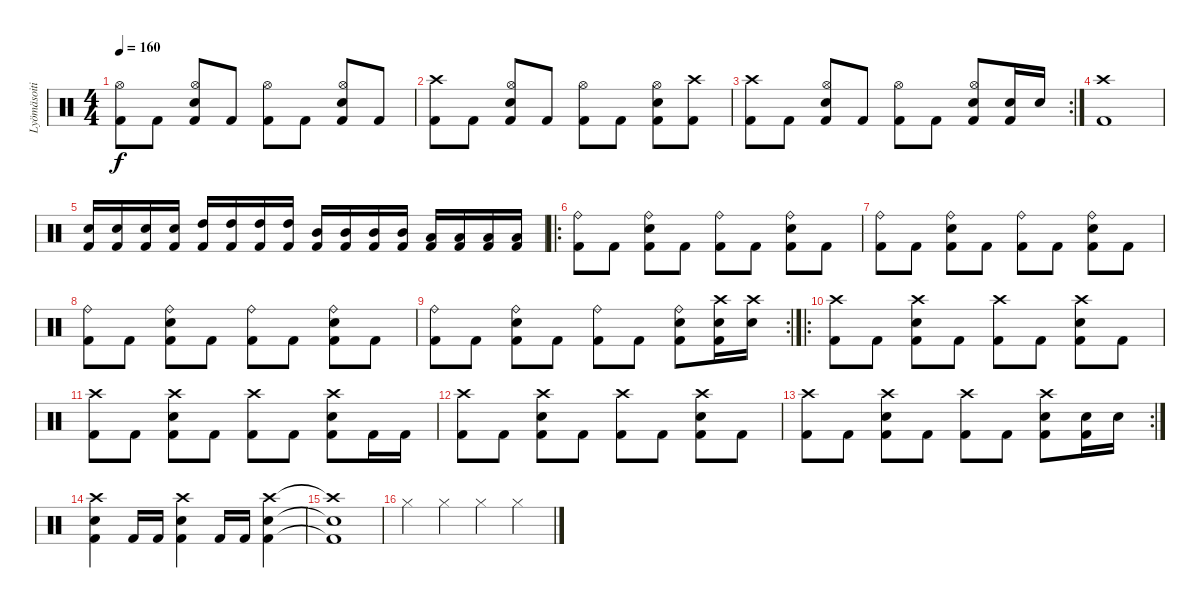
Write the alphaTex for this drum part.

\track ("Lyömäsoitin" "Lyömäsoiti") {instrument percussion}
\staff {score}
\articulation defaults
\ts (4 4)
\tempo 160
\clef neutral
\ks c
("Kick (hit) 2" "Hi-Hat (open)").8{dy f} "Kick (hit) 2".8 ("Kick (hit) 2" "Hi-Hat (open)" "Electric Snare (hit)").8 "Kick (hit) 2".8 ("Kick (hit) 2" "Hi-Hat (open)").8 "Kick (hit) 2".8 ("Kick (hit) 2" "Hi-Hat (open)" "Electric Snare (hit)").8 "Kick (hit) 2".8 |
("Kick (hit) 2" "Crash high (hit)").8 "Kick (hit) 2".8 ("Kick (hit) 2" "Hi-Hat (open)" "Electric Snare (hit)").8 "Kick (hit) 2".8 ("Kick (hit) 2" "Hi-Hat (open)").8 "Kick (hit) 2".8 ("Kick (hit) 2" "Hi-Hat (open)" "Electric Snare (hit)").8 ("Kick (hit) 2" "Crash high (hit)").8 |
\rc 2
("Kick (hit) 2" "Crash high (hit)").8 "Kick (hit) 2".8 ("Kick (hit) 2" "Hi-Hat (open)" "Electric Snare (hit)").8 "Kick (hit) 2".8 ("Kick (hit) 2" "Hi-Hat (open)").8 "Kick (hit) 2".8 ("Kick (hit) 2" "Hi-Hat (open)" "Electric Snare (hit)").8 ("Kick (hit) 2" "Electric Snare (hit)").16 "Electric Snare (hit)".16 |
("Kick (hit) 2" "Crash high (hit)").1 |
("Electric Snare (hit)" "Kick (hit) 2").16 ("Electric Snare (hit)" "Kick (hit) 2").16 ("Electric Snare (hit)" "Kick (hit) 2").16 ("Electric Snare (hit)" "Kick (hit) 2").16 ("High Tom (hit)" "Kick (hit) 2").16 ("High Tom (hit)" "Kick (hit) 2").16 ("High Tom (hit)" "Kick (hit) 2").16 ("High Tom (hit)" "Kick (hit) 2").16 ("Mid Tom (hit)" "Kick (hit) 2").16 ("Mid Tom (hit)" "Kick (hit) 2").16 ("Mid Tom (hit)" "Kick (hit) 2").16 ("Mid Tom (hit)" "Kick (hit) 2").16 ("Low Floor Tom (hit)" "Kick (hit) 2").16 ("Low Floor Tom (hit)" "Kick (hit) 2").16 ("Low Floor Tom (hit)" "Kick (hit) 2").16 ("Low Floor Tom (hit)" "Kick (hit) 2").16 |
\ro
("Kick (hit) 2" "Ride (bell)").8 "Kick (hit) 2".8 ("Kick (hit) 2" "Ride (bell)" "Electric Snare (hit)").8 "Kick (hit) 2".8 ("Kick (hit) 2" "Ride (bell)").8 "Kick (hit) 2".8 ("Kick (hit) 2" "Ride (bell)" "Electric Snare (hit)").8 "Kick (hit) 2".8 |
("Kick (hit) 2" "Ride (bell)").8 "Kick (hit) 2".8 ("Kick (hit) 2" "Ride (bell)" "Electric Snare (hit)").8 "Kick (hit) 2".8 ("Kick (hit) 2" "Ride (bell)").8 "Kick (hit) 2".8 ("Kick (hit) 2" "Ride (bell)" "Electric Snare (hit)").8 "Kick (hit) 2".8 |
("Kick (hit) 2" "Ride (bell)").8 "Kick (hit) 2".8 ("Kick (hit) 2" "Ride (bell)" "Electric Snare (hit)").8 "Kick (hit) 2".8 ("Kick (hit) 2" "Ride (bell)").8 "Kick (hit) 2".8 ("Kick (hit) 2" "Ride (bell)" "Electric Snare (hit)").8 "Kick (hit) 2".8 |
\rc 2
("Kick (hit) 2" "Ride (bell)").8 "Kick (hit) 2".8 ("Kick (hit) 2" "Ride (bell)" "Electric Snare (hit)").8 "Kick (hit) 2".8 ("Kick (hit) 2" "Ride (bell)").8 "Kick (hit) 2".8 ("Kick (hit) 2" "Ride (bell)" "Electric Snare (hit)").8 ("Kick (hit) 2" "Crash high (hit)" "Electric Snare (hit)").16 ("Crash high (hit)" "Electric Snare (hit)").16 |
\ro
("Kick (hit) 2" "Crash high (hit)").8 "Kick (hit) 2".8 ("Kick (hit) 2" "Crash high (hit)" "Electric Snare (hit)").8 "Kick (hit) 2".8 ("Kick (hit) 2" "Crash high (hit)").8 "Kick (hit) 2".8 ("Kick (hit) 2" "Crash high (hit)" "Electric Snare (hit)").8 "Kick (hit) 2".8 |
("Kick (hit) 2" "Crash high (hit)").8 "Kick (hit) 2".8 ("Kick (hit) 2" "Crash high (hit)" "Electric Snare (hit)").8 "Kick (hit) 2".8 ("Kick (hit) 2" "Crash high (hit)").8 "Kick (hit) 2".8 ("Kick (hit) 2" "Crash high (hit)" "Electric Snare (hit)").8 "Kick (hit) 2".16 "Kick (hit) 2".16 |
("Kick (hit) 2" "Crash high (hit)").8 "Kick (hit) 2".8 ("Kick (hit) 2" "Crash high (hit)" "Electric Snare (hit)").8 "Kick (hit) 2".8 ("Kick (hit) 2" "Crash high (hit)").8 "Kick (hit) 2".8 ("Kick (hit) 2" "Crash high (hit)" "Electric Snare (hit)").8 "Kick (hit) 2".8 |
\rc 2
("Kick (hit) 2" "Crash high (hit)").8 "Kick (hit) 2".8 ("Kick (hit) 2" "Crash high (hit)" "Electric Snare (hit)").8 "Kick (hit) 2".8 ("Kick (hit) 2" "Crash high (hit)").8 "Kick (hit) 2".8 ("Kick (hit) 2" "Crash high (hit)" "Electric Snare (hit)").8 ("Kick (hit) 2" "Electric Snare (hit)").16 "Electric Snare (hit)".16 |
("Kick (hit) 2" "Crash high (hit)" "Electric Snare (hit)").4 "Kick (hit) 2".16 "Kick (hit) 2".16 ("Kick (hit) 2" "Crash high (hit)" "Electric Snare (hit)").4 "Kick (hit) 2".16 "Kick (hit) 2".16 ("Kick (hit) 2" "Crash high (hit)" "Electric Snare (hit)").4 |
("Kick (hit) 2"{t} "Crash high (hit)"{t} "Electric Snare (hit)"{t}).1 |
"Hi-Hat (closed)".4 "Hi-Hat (closed)".4 "Hi-Hat (closed)".4 "Hi-Hat (closed)".4
